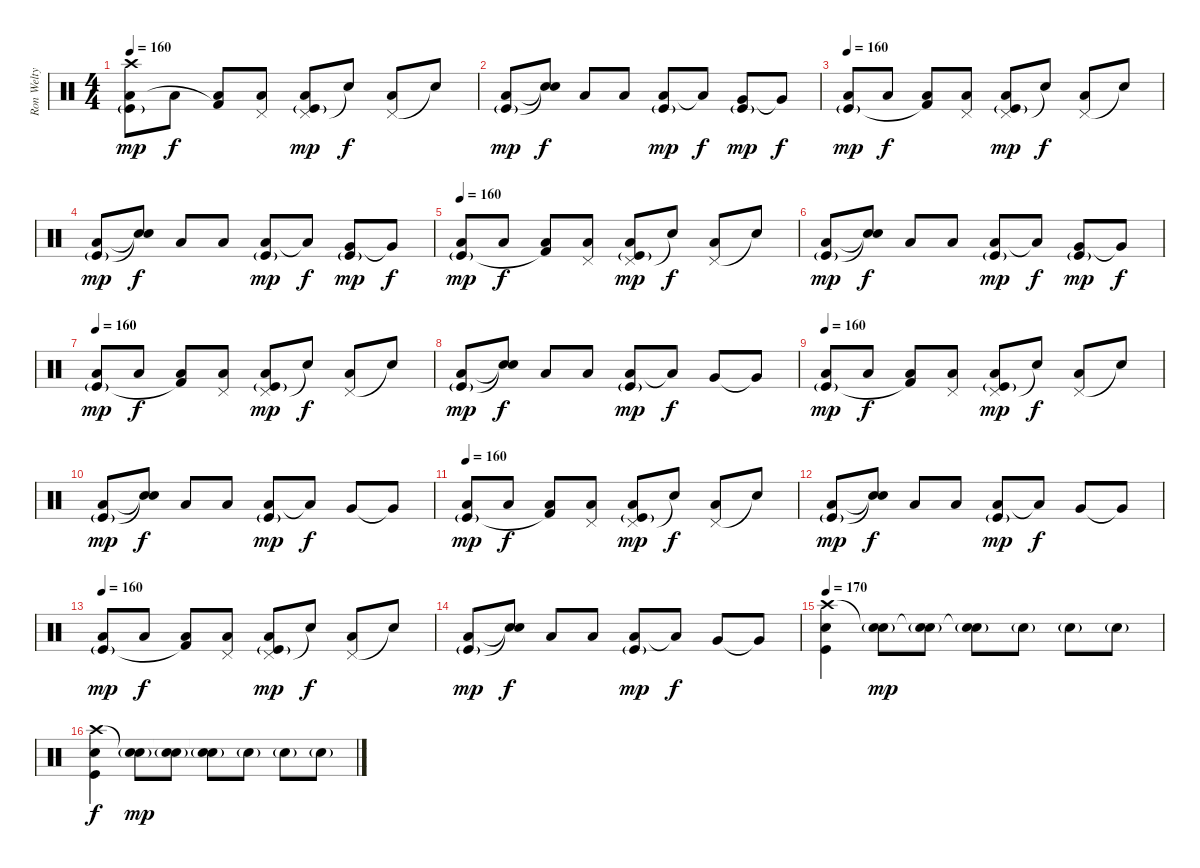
\track ("Ron Welty" "Ron Welty") {instrument percussion}
\staff {score}
\articulation defaults
\ts (4 4)
\tempo 160
\clef neutral
\ks c
("Crash high (hit)" "Low Tom (hit)" "Kick (hit)"{g}).8{dy mp} "Low Tom (hit)".8{dy f} ("Low Tom (hit)" "Kick (hit) 2"{t}).8 ("Pedal Hi-Hat (hit)" "Low Tom (hit)").8 ("Pedal Hi-Hat (hit)" "Low Tom (hit)" "Kick (hit)"{g}).8{dy mp} "Snare (hit)"{t}.8{dy f} ("Pedal Hi-Hat (hit)" "Low Tom (hit)").8 "Snare (hit)"{t}.8 |
("Low Tom (hit)" "Kick (hit)"{g}).8{dy mp} ("Snare (hit)"{t} "Snare (hit)"{t}).8{dy f} "Low Tom (hit)".8 "Low Tom (hit)".8 ("Low Tom (hit)" "Kick (hit)"{g}).8{dy mp} "Low Tom (hit)"{t}.8{dy f} ("Very Low Tom (hit)" "Kick (hit)"{g}).8{dy mp} "Very Low Tom (hit)"{t}.8{dy f} |
\tempo 160
("Low Tom (hit)" "Kick (hit)"{g}).8{dy mp} "Low Tom (hit)".8{dy f} ("Low Tom (hit)" "Kick (hit) 2"{t}).8 ("Pedal Hi-Hat (hit)" "Low Tom (hit)").8 ("Pedal Hi-Hat (hit)" "Low Tom (hit)" "Kick (hit)"{g}).8{dy mp} "Snare (hit)"{t}.8{dy f} ("Pedal Hi-Hat (hit)" "Low Tom (hit)").8 "Snare (hit)"{t}.8 |
("Low Tom (hit)" "Kick (hit)"{g}).8{dy mp} ("Snare (hit)"{t} "Snare (hit)"{t}).8{dy f} "Low Tom (hit)".8 "Low Tom (hit)".8 ("Low Tom (hit)" "Kick (hit)"{g}).8{dy mp} "Low Tom (hit)"{t}.8{dy f} ("Very Low Tom (hit)" "Kick (hit)"{g}).8{dy mp} "Very Low Tom (hit)"{t}.8{dy f} |
\tempo 160
("Low Tom (hit)" "Kick (hit)"{g}).8{dy mp} "Low Tom (hit)".8{dy f} ("Low Tom (hit)" "Kick (hit) 2"{t}).8 ("Pedal Hi-Hat (hit)" "Low Tom (hit)").8 ("Pedal Hi-Hat (hit)" "Low Tom (hit)" "Kick (hit)"{g}).8{dy mp} "Snare (hit)"{t}.8{dy f} ("Pedal Hi-Hat (hit)" "Low Tom (hit)").8 "Snare (hit)"{t}.8 |
("Low Tom (hit)" "Kick (hit)"{g}).8{dy mp} ("Snare (hit)"{t} "Snare (hit)"{t}).8{dy f} "Low Tom (hit)".8 "Low Tom (hit)".8 ("Low Tom (hit)" "Kick (hit)"{g}).8{dy mp} "Low Tom (hit)"{t}.8{dy f} ("Very Low Tom (hit)" "Kick (hit)"{g}).8{dy mp} "Very Low Tom (hit)"{t}.8{dy f} |
\tempo 160
("Low Tom (hit)" "Kick (hit)"{g}).8{dy mp} "Low Tom (hit)".8{dy f} ("Low Tom (hit)" "Kick (hit) 2"{t}).8 ("Pedal Hi-Hat (hit)" "Low Tom (hit)").8 ("Pedal Hi-Hat (hit)" "Low Tom (hit)" "Kick (hit)"{g}).8{dy mp} "Snare (hit)"{t}.8{dy f} ("Pedal Hi-Hat (hit)" "Low Tom (hit)").8 "Snare (hit)"{t}.8 |
("Low Tom (hit)" "Kick (hit)"{g}).8{dy mp} ("Snare (hit)"{t} "Snare (hit)"{t}).8{dy f} "Low Tom (hit)".8 "Low Tom (hit)".8 ("Low Tom (hit)" "Kick (hit)"{g}).8{dy mp} "Low Tom (hit)"{t}.8{dy f} "Very Low Tom (hit)".8 "Very Low Tom (hit)"{t}.8 |
\tempo 160
("Low Tom (hit)" "Kick (hit)"{g}).8{dy mp} "Low Tom (hit)".8{dy f} ("Low Tom (hit)" "Kick (hit) 2"{t}).8 ("Pedal Hi-Hat (hit)" "Low Tom (hit)").8 ("Pedal Hi-Hat (hit)" "Low Tom (hit)" "Kick (hit)"{g}).8{dy mp} "Snare (hit)"{t}.8{dy f} ("Pedal Hi-Hat (hit)" "Low Tom (hit)").8 "Snare (hit)"{t}.8 |
("Low Tom (hit)" "Kick (hit)"{g}).8{dy mp} ("Snare (hit)"{t} "Snare (hit)"{t}).8{dy f} "Low Tom (hit)".8 "Low Tom (hit)".8 ("Low Tom (hit)" "Kick (hit)"{g}).8{dy mp} "Low Tom (hit)"{t}.8{dy f} "Very Low Tom (hit)".8 "Very Low Tom (hit)"{t}.8 |
\tempo 160
("Low Tom (hit)" "Kick (hit)"{g}).8{dy mp} "Low Tom (hit)".8{dy f} ("Low Tom (hit)" "Kick (hit) 2"{t}).8 ("Pedal Hi-Hat (hit)" "Low Tom (hit)").8 ("Pedal Hi-Hat (hit)" "Low Tom (hit)" "Kick (hit)"{g}).8{dy mp} "Snare (hit)"{t}.8{dy f} ("Pedal Hi-Hat (hit)" "Low Tom (hit)").8 "Snare (hit)"{t}.8 |
("Low Tom (hit)" "Kick (hit)"{g}).8{dy mp} ("Snare (hit)"{t} "Snare (hit)"{t}).8{dy f} "Low Tom (hit)".8 "Low Tom (hit)".8 ("Low Tom (hit)" "Kick (hit)"{g}).8{dy mp} "Low Tom (hit)"{t}.8{dy f} "Very Low Tom (hit)".8 "Very Low Tom (hit)"{t}.8 |
\tempo 160
("Low Tom (hit)" "Kick (hit)"{g}).8{dy mp} "Low Tom (hit)".8{dy f} ("Low Tom (hit)" "Kick (hit) 2"{t}).8 ("Pedal Hi-Hat (hit)" "Low Tom (hit)").8 ("Pedal Hi-Hat (hit)" "Low Tom (hit)" "Kick (hit)"{g}).8{dy mp} "Snare (hit)"{t}.8{dy f} ("Pedal Hi-Hat (hit)" "Low Tom (hit)").8 "Snare (hit)"{t}.8 |
("Low Tom (hit)" "Kick (hit)"{g}).8{dy mp} ("Snare (hit)"{t} "Snare (hit)"{t}).8{dy f} "Low Tom (hit)".8 "Low Tom (hit)".8 ("Low Tom (hit)" "Kick (hit)"{g}).8{dy mp} "Low Tom (hit)"{t}.8{dy f} "Very Low Tom (hit)".8 "Very Low Tom (hit)"{t}.8 |
\tempo 170
("Crash high (hit)" "Snare (hit) 2" "Kick (hit)").4{volume 13} ("Snare (hit)"{t} "Snare (hit) 2"{g}).8{dy mp} ("Snare (hit)"{t} "Snare (hit) 2"{g}).8 ("Snare (hit)"{t} "Snare (hit) 2"{g}).8 "Snare (hit) 2"{g}.8 "Snare (hit) 2"{g}.8 "Snare (hit) 2"{g}.8 |
("Crash high (hit)" "Snare (hit) 2" "Kick (hit)").4{dy f volume 13} ("Snare (hit)"{t} "Snare (hit) 2"{g}).8{dy mp} ("Snare (hit)"{t} "Snare (hit) 2"{g}).8 ("Snare (hit)"{t} "Snare (hit) 2"{g}).8 "Snare (hit) 2"{g}.8 "Snare (hit) 2"{g}.8 "Snare (hit) 2"{g}.8
